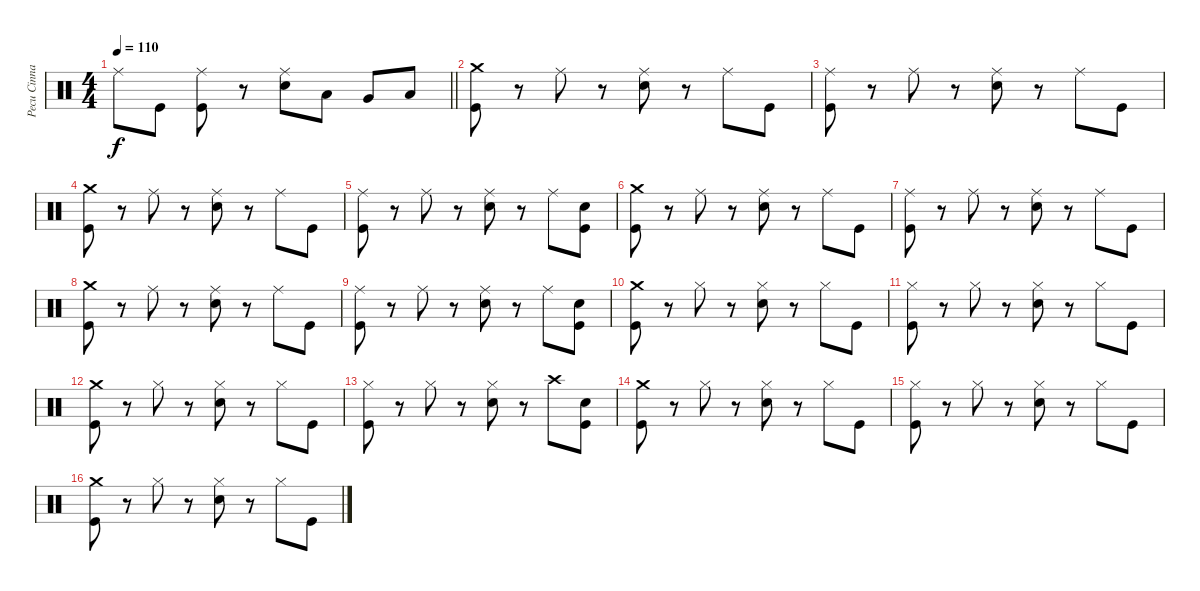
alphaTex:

\track ("Pecu Cinnari" "Pecu Cinna") {instrument percussion}
\staff {score}
\articulation defaults
\ts (4 4)
\tempo 110
\clef neutral
\barLineRight lightlight
\ks c "Ride (middle)".8{dy f} "Kick (hit)".8
("Ride (middle)" "Kick (hit)").8 r.8 ("Ride (middle)" "Snare (hit) 2").8 "Low Tom (hit)".8 "Very Low Tom (hit)".8 "Low Floor Tom (hit)".8 |
\section ("" "")
("Crash medium (hit)" "Kick (hit)").8 r.8 "Ride (middle)".8 r.8 ("Ride (middle)" "Snare (hit) 2").8 r.8 "Ride (middle)".8 "Kick (hit)".8 |
("Ride (middle)" "Kick (hit)").8 r.8 "Ride (middle)".8 r.8 ("Ride (middle)" "Snare (hit) 2").8 r.8 "Ride (middle)".8 "Kick (hit)".8 |
("Crash medium (hit)" "Kick (hit)").8 r.8 "Ride (middle)".8 r.8 ("Ride (middle)" "Snare (hit) 2").8 r.8 "Ride (middle)".8 "Kick (hit)".8 |
("Ride (middle)" "Kick (hit)").8 r.8 "Ride (middle)".8 r.8 ("Ride (middle)" "Snare (hit) 2").8 r.8 "Ride (middle)".8 ("Snare (hit) 2" "Kick (hit)").8 |
("Crash medium (hit)" "Kick (hit)").8 r.8 "Ride (middle)".8 r.8 ("Ride (middle)" "Snare (hit) 2").8 r.8 "Ride (middle)".8 "Kick (hit)".8 |
("Ride (middle)" "Kick (hit)").8 r.8 "Ride (middle)".8 r.8 ("Ride (middle)" "Snare (hit) 2").8 r.8 "Ride (middle)".8 "Kick (hit)".8 |
("Crash medium (hit)" "Kick (hit)").8 r.8 "Ride (middle)".8 r.8 ("Ride (middle)" "Snare (hit) 2").8 r.8 "Ride (middle)".8 "Kick (hit)".8 |
("Ride (middle)" "Kick (hit)").8 r.8 "Ride (middle)".8 r.8 ("Ride (middle)" "Snare (hit) 2").8 r.8 "Ride (middle)".8 ("Snare (hit) 2" "Kick (hit)").8 |
("Crash medium (hit)" "Kick (hit)").8 r.8 "Hi-Hat (closed)".8 r.8 ("Hi-Hat (closed)" "Snare (hit) 2").8 r.8 "Hi-Hat (closed)".8 "Kick (hit)".8 |
("Hi-Hat (closed)" "Kick (hit)").8 r.8 "Hi-Hat (closed)".8 r.8 ("Hi-Hat (closed)" "Snare (hit) 2").8 r.8 "Hi-Hat (closed)".8 "Kick (hit)".8 |
("Crash medium (hit)" "Kick (hit)").8 r.8 "Hi-Hat (closed)".8 r.8 ("Hi-Hat (closed)" "Snare (hit) 2").8 r.8 "Hi-Hat (closed)".8 "Kick (hit)".8 |
("Hi-Hat (closed)" "Kick (hit)").8 r.8 "Hi-Hat (closed)".8 r.8 ("Hi-Hat (closed)" "Snare (hit) 2").8 r.8 "Crash high (hit)".8 ("Snare (hit) 2" "Kick (hit)").8 |
("Crash medium (hit)" "Kick (hit)").8 r.8 "Hi-Hat (closed)".8 r.8 ("Hi-Hat (closed)" "Snare (hit) 2").8 r.8 "Hi-Hat (closed)".8 "Kick (hit)".8 |
("Hi-Hat (closed)" "Kick (hit)").8 r.8 "Hi-Hat (closed)".8 r.8 ("Hi-Hat (closed)" "Snare (hit) 2").8 r.8 "Hi-Hat (closed)".8 "Kick (hit)".8 |
("Crash medium (hit)" "Kick (hit)").8 r.8 "Hi-Hat (closed)".8 r.8 ("Hi-Hat (closed)" "Snare (hit) 2").8 r.8 "Hi-Hat (closed)".8 "Kick (hit)".8
